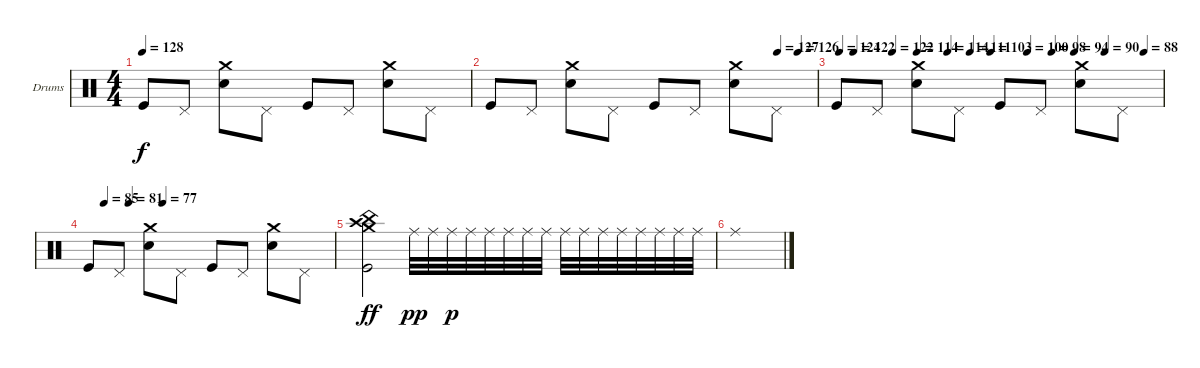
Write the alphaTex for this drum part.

\defaultSystemsLayout 4
\bracketExtendMode groupsimilarinstruments
\firstSystemTrackNameOrientation horizontal
\otherSystemsTrackNameOrientation horizontal
\track ("Е. Кулаков" "Drums") {instrument percussion}
\staff {score}
\articulation defaults
\ts (4 4)
\tempo 128
\clef neutral
\ks c "Kick (hit)".8{dy f} "Pedal Hi-Hat (hit)".8
("Snare (hit) 2" "Crash medium (hit)").8 "Pedal Hi-Hat (hit)".8 "Kick (hit)".8 "Pedal Hi-Hat (hit)".8 ("Snare (hit) 2" "Crash medium (hit)").8 "Pedal Hi-Hat (hit)".8 |
\tempo (127 0.88125)
\tempo (126 0.94375)
"Kick (hit)".8 "Pedal Hi-Hat (hit)".8 ("Snare (hit) 2" "Crash medium (hit)").8 "Pedal Hi-Hat (hit)".8 "Kick (hit)".8 "Pedal Hi-Hat (hit)".8 ("Snare (hit) 2" "Crash medium (hit)").8 "Pedal Hi-Hat (hit)".8 |
\tempo (124 0.0125)
\tempo (122 0.05625)
\tempo (122 0.175)
\tempo (114 0.25)
\tempo (114 0.34375)
\tempo (111 0.4125)
\tempo (103 0.475)
\tempo (100 0.5875)
\tempo (98 0.6625)
\tempo (94 0.73125)
\tempo (90 0.825)
\tempo (88 0.94375)
"Kick (hit)".8 "Pedal Hi-Hat (hit)".8 ("Snare (hit) 2" "Crash medium (hit)").8 "Pedal Hi-Hat (hit)".8 "Kick (hit)".8 "Pedal Hi-Hat (hit)".8 ("Snare (hit) 2" "Crash medium (hit)").8 "Pedal Hi-Hat (hit)".8 |
\tempo (85 0.06875)
\tempo (81 0.16875)
\tempo (77 0.30625)
"Kick (hit)".8 "Pedal Hi-Hat (hit)".8 ("Snare (hit) 2" "Crash medium (hit)").8 "Pedal Hi-Hat (hit)".8 "Kick (hit)".8 "Pedal Hi-Hat (hit)".8 ("Snare (hit) 2" "Crash medium (hit)").8 "Pedal Hi-Hat (hit)".8 |
("Kick (hit)" "Crash medium (hit)" "Crash high (hit)" "China (hit)").2{dy ff} "Ride (middle)".32{dy pp} "Ride (middle)".32 "Ride (middle)".32{dy p} "Ride (middle)".32 "Ride (middle)".32 "Ride (middle)".32 "Ride (middle)".32 "Ride (middle)".32 "Ride (middle)".32 "Ride (middle)".32 "Ride (middle)".32 "Ride (middle)".32 "Ride (middle)".32 "Ride (middle)".32 "Ride (middle)".32 "Ride (middle)".32 |
"Ride (middle)".1
